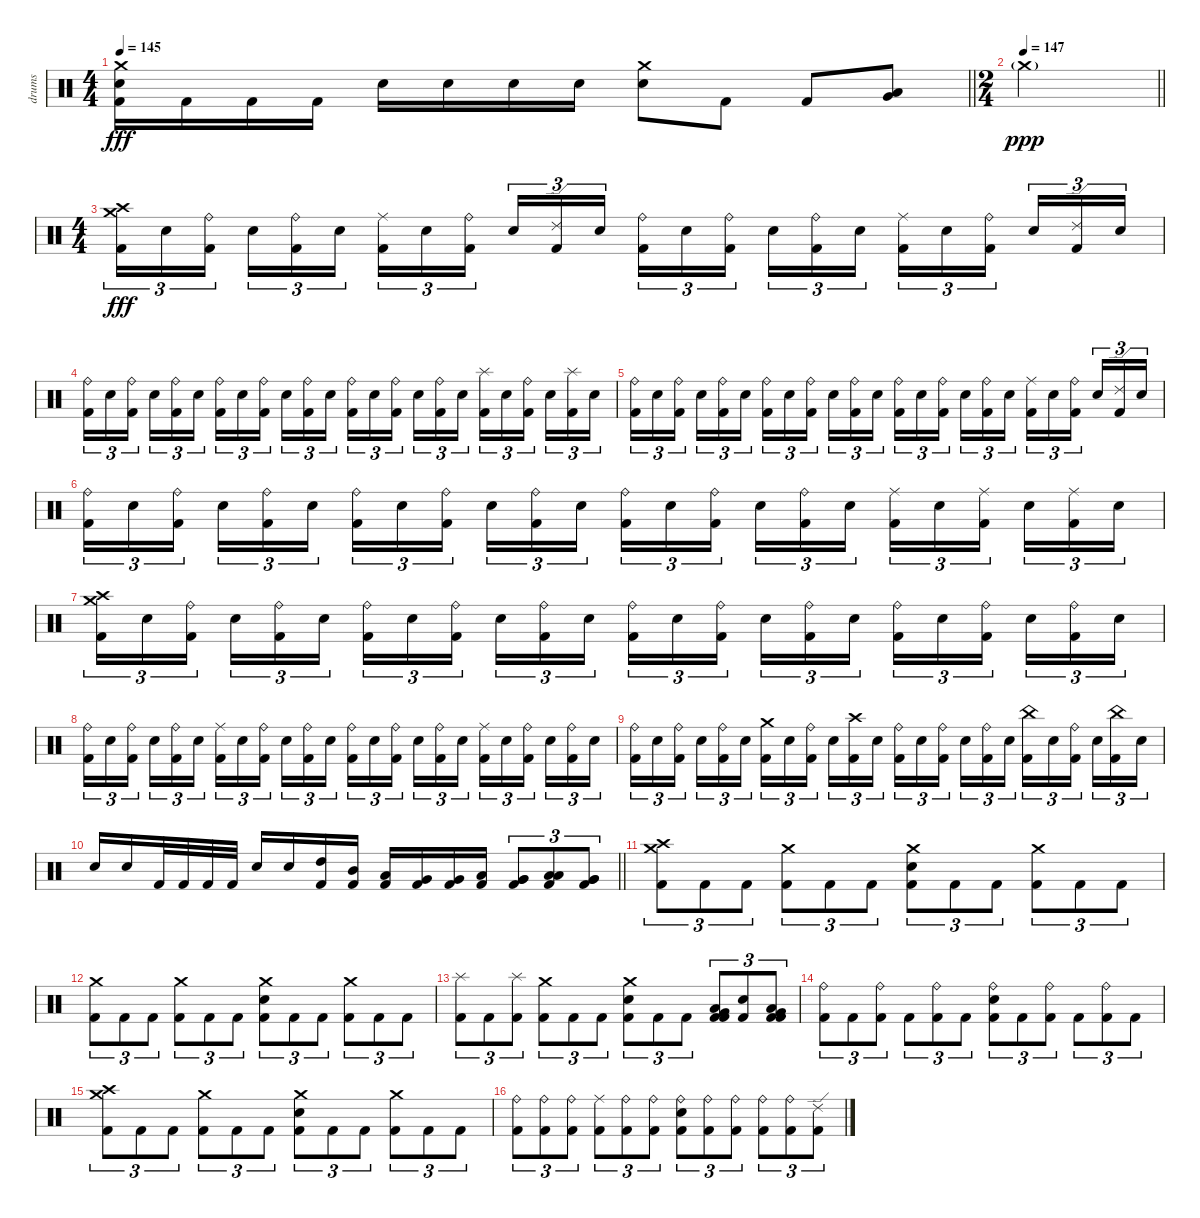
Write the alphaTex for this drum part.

\track ("drums" "drums") {instrument percussion}
\staff {score}
\articulation defaults
\ts (4 4)
\tempo 145
\clef neutral
\barLineRight lightlight
\ks c
("Crash medium (hit)" "Electric Snare (hit)" "Kick (hit) 2").16{dy fff} "Kick (hit) 2".16 "Kick (hit) 2".16 "Kick (hit) 2".16 "Electric Snare (hit)".16 "Electric Snare (hit)".16 "Electric Snare (hit)".16 "Electric Snare (hit)".16 ("Crash medium (hit)" "Electric Snare (hit)").8 "Kick (hit) 2".8 "Kick (hit) 2".8 ("Very Low Tom (hit)" "Low Floor Tom (hit)").8 |
\ts (2 4)
\tempo 147
\barLineRight lightlight "Crash medium (hit)"{g}.2{dy ppp}
|
\ts (4 4)
\section ("" "")
("Crash high (hit)" "Crash medium (hit)" "Kick (hit) 2").16{tu (3 2) dy fff} "Electric Snare (hit)".16{tu (3 2)} ("Ride (bell)" "Kick (hit) 2").16{tu (3 2) beam splitsecondary} "Electric Snare (hit)".16{tu (3 2)} ("Ride (bell)" "Kick (hit) 2").16{tu (3 2)} "Electric Snare (hit)".16{tu (3 2)} ("Ride (middle)" "Kick (hit) 2").16{tu (3 2)} "Electric Snare (hit)".16{tu (3 2)} ("Ride (bell)" "Kick (hit) 2").16{tu (3 2) beam splitsecondary} "Electric Snare (hit)".16{tu (3 2)} ("Ride (edge) 2" "Kick (hit) 2").16{tu (3 2)} "Electric Snare (hit)".16{tu (3 2)} ("Ride (bell)" "Kick (hit) 2").16{tu (3 2)} "Electric Snare (hit)".16{tu (3 2)} ("Ride (bell)" "Kick (hit) 2").16{tu (3 2) beam splitsecondary} "Electric Snare (hit)".16{tu (3 2)} ("Ride (bell)" "Kick (hit) 2").16{tu (3 2)} "Electric Snare (hit)".16{tu (3 2)} ("Ride (middle)" "Kick (hit) 2").16{tu (3 2)} "Electric Snare (hit)".16{tu (3 2)} ("Ride (bell)" "Kick (hit) 2").16{tu (3 2) beam splitsecondary} "Electric Snare (hit)".16{tu (3 2)} ("Ride (edge) 2" "Kick (hit) 2").16{tu (3 2)} "Electric Snare (hit)".16{tu (3 2)} |
("Ride (bell)" "Kick (hit) 2").16{tu (3 2)} "Electric Snare (hit)".16{tu (3 2)} ("Ride (bell)" "Kick (hit) 2").16{tu (3 2) beam splitsecondary} "Electric Snare (hit)".16{tu (3 2)} ("Ride (bell)" "Kick (hit) 2").16{tu (3 2)} "Electric Snare (hit)".16{tu (3 2)} ("Ride (bell)" "Kick (hit) 2").16{tu (3 2)} "Electric Snare (hit)".16{tu (3 2)} ("Ride (bell)" "Kick (hit) 2").16{tu (3 2) beam splitsecondary} "Electric Snare (hit)".16{tu (3 2)} ("Ride (bell)" "Kick (hit) 2").16{tu (3 2)} "Electric Snare (hit)".16{tu (3 2)} ("Ride (bell)" "Kick (hit) 2").16{tu (3 2)} "Electric Snare (hit)".16{tu (3 2)} ("Ride (bell)" "Kick (hit) 2").16{tu (3 2) beam splitsecondary} "Electric Snare (hit)".16{tu (3 2)} ("Ride (bell)" "Kick (hit) 2").16{tu (3 2)} "Electric Snare (hit)".16{tu (3 2)} ("Splash (hit)" "Kick (hit) 2").16{tu (3 2)} "Electric Snare (hit)".16{tu (3 2)} ("Ride (bell)" "Kick (hit) 2").16{tu (3 2) beam splitsecondary} "Electric Snare (hit)".16{tu (3 2)} ("Splash (hit)" "Kick (hit) 2").16{tu (3 2)} "Electric Snare (hit)".16{tu (3 2)} |
("Ride (bell)" "Kick (hit) 2").16{tu (3 2)} "Electric Snare (hit)".16{tu (3 2)} ("Ride (bell)" "Kick (hit) 2").16{tu (3 2) beam splitsecondary} "Electric Snare (hit)".16{tu (3 2)} ("Ride (bell)" "Kick (hit) 2").16{tu (3 2)} "Electric Snare (hit)".16{tu (3 2)} ("Ride (bell)" "Kick (hit) 2").16{tu (3 2)} "Electric Snare (hit)".16{tu (3 2)} ("Ride (bell)" "Kick (hit) 2").16{tu (3 2) beam splitsecondary} "Electric Snare (hit)".16{tu (3 2)} ("Ride (bell)" "Kick (hit) 2").16{tu (3 2)} "Electric Snare (hit)".16{tu (3 2)} ("Ride (bell)" "Kick (hit) 2").16{tu (3 2)} "Electric Snare (hit)".16{tu (3 2)} ("Ride (bell)" "Kick (hit) 2").16{tu (3 2) beam splitsecondary} "Electric Snare (hit)".16{tu (3 2)} ("Ride (bell)" "Kick (hit) 2").16{tu (3 2)} "Electric Snare (hit)".16{tu (3 2)} ("Ride (middle)" "Kick (hit) 2").16{tu (3 2)} "Electric Snare (hit)".16{tu (3 2)} ("Ride (bell)" "Kick (hit) 2").16{tu (3 2) beam splitsecondary} "Electric Snare (hit)".16{tu (3 2)} ("Ride (edge) 2" "Kick (hit) 2").16{tu (3 2)} "Electric Snare (hit)".16{tu (3 2)} |
("Ride (bell)" "Kick (hit) 2").16{tu (3 2)} "Electric Snare (hit)".16{tu (3 2)} ("Ride (bell)" "Kick (hit) 2").16{tu (3 2) beam splitsecondary} "Electric Snare (hit)".16{tu (3 2)} ("Ride (bell)" "Kick (hit) 2").16{tu (3 2)} "Electric Snare (hit)".16{tu (3 2)} ("Ride (bell)" "Kick (hit) 2").16{tu (3 2)} "Electric Snare (hit)".16{tu (3 2)} ("Ride (bell)" "Kick (hit) 2").16{tu (3 2) beam splitsecondary} "Electric Snare (hit)".16{tu (3 2)} ("Ride (bell)" "Kick (hit) 2").16{tu (3 2)} "Electric Snare (hit)".16{tu (3 2)} ("Ride (bell)" "Kick (hit) 2").16{tu (3 2)} "Electric Snare (hit)".16{tu (3 2)} ("Ride (bell)" "Kick (hit) 2").16{tu (3 2) beam splitsecondary} "Electric Snare (hit)".16{tu (3 2)} ("Ride (bell)" "Kick (hit) 2").16{tu (3 2)} "Electric Snare (hit)".16{tu (3 2)} ("Ride (middle)" "Kick (hit) 2").16{tu (3 2)} "Electric Snare (hit)".16{tu (3 2)} ("Ride (middle)" "Kick (hit) 2").16{tu (3 2) beam splitsecondary} "Electric Snare (hit)".16{tu (3 2)} ("Ride (middle)" "Kick (hit) 2").16{tu (3 2)} "Electric Snare (hit)".16{tu (3 2)} |
("Crash high (hit)" "Crash medium (hit)" "Kick (hit) 2").16{tu (3 2)} "Electric Snare (hit)".16{tu (3 2)} ("Ride (bell)" "Kick (hit) 2").16{tu (3 2) beam splitsecondary} "Electric Snare (hit)".16{tu (3 2)} ("Ride (bell)" "Kick (hit) 2").16{tu (3 2)} "Electric Snare (hit)".16{tu (3 2)} ("Ride (bell)" "Kick (hit) 2").16{tu (3 2)} "Electric Snare (hit)".16{tu (3 2)} ("Ride (bell)" "Kick (hit) 2").16{tu (3 2) beam splitsecondary} "Electric Snare (hit)".16{tu (3 2)} ("Ride (bell)" "Kick (hit) 2").16{tu (3 2)} "Electric Snare (hit)".16{tu (3 2)} ("Ride (bell)" "Kick (hit) 2").16{tu (3 2)} "Electric Snare (hit)".16{tu (3 2)} ("Ride (bell)" "Kick (hit) 2").16{tu (3 2) beam splitsecondary} "Electric Snare (hit)".16{tu (3 2)} ("Ride (bell)" "Kick (hit) 2").16{tu (3 2)} "Electric Snare (hit)".16{tu (3 2)} ("Ride (bell)" "Kick (hit) 2").16{tu (3 2)} "Electric Snare (hit)".16{tu (3 2)} ("Ride (bell)" "Kick (hit) 2").16{tu (3 2) beam splitsecondary} "Electric Snare (hit)".16{tu (3 2)} ("Ride (bell)" "Kick (hit) 2").16{tu (3 2)} "Electric Snare (hit)".16{tu (3 2)} |
("Ride (bell)" "Kick (hit) 2").16{tu (3 2)} "Electric Snare (hit)".16{tu (3 2)} ("Ride (bell)" "Kick (hit) 2").16{tu (3 2) beam splitsecondary} "Electric Snare (hit)".16{tu (3 2)} ("Ride (bell)" "Kick (hit) 2").16{tu (3 2)} "Electric Snare (hit)".16{tu (3 2)} ("Ride (middle)" "Kick (hit) 2").16{tu (3 2)} "Electric Snare (hit)".16{tu (3 2)} ("Ride (bell)" "Kick (hit) 2").16{tu (3 2) beam splitsecondary} "Electric Snare (hit)".16{tu (3 2)} ("Ride (bell)" "Kick (hit) 2").16{tu (3 2)} "Electric Snare (hit)".16{tu (3 2)} ("Ride (bell)" "Kick (hit) 2").16{tu (3 2)} "Electric Snare (hit)".16{tu (3 2)} ("Ride (bell)" "Kick (hit) 2").16{tu (3 2) beam splitsecondary} "Electric Snare (hit)".16{tu (3 2)} ("Ride (bell)" "Kick (hit) 2").16{tu (3 2)} "Electric Snare (hit)".16{tu (3 2)} ("Ride (middle)" "Kick (hit) 2").16{tu (3 2)} "Electric Snare (hit)".16{tu (3 2)} ("Ride (bell)" "Kick (hit) 2").16{tu (3 2) beam splitsecondary} "Electric Snare (hit)".16{tu (3 2)} ("Ride (bell)" "Kick (hit) 2").16{tu (3 2)} "Electric Snare (hit)".16{tu (3 2)} |
("Ride (bell)" "Kick (hit) 2").16{tu (3 2)} "Electric Snare (hit)".16{tu (3 2)} ("Ride (bell)" "Kick (hit) 2").16{tu (3 2) beam splitsecondary} "Electric Snare (hit)".16{tu (3 2)} ("Ride (bell)" "Kick (hit) 2").16{tu (3 2)} "Electric Snare (hit)".16{tu (3 2)} ("Crash medium (hit)" "Kick (hit) 2").16{tu (3 2)} "Electric Snare (hit)".16{tu (3 2)} ("Ride (bell)" "Kick (hit) 2").16{tu (3 2) beam splitsecondary} "Electric Snare (hit)".16{tu (3 2)} ("Crash high (hit)" "Kick (hit) 2").16{tu (3 2)} "Electric Snare (hit)".16{tu (3 2)} ("Ride (bell)" "Kick (hit) 2").16{tu (3 2)} "Electric Snare (hit)".16{tu (3 2)} ("Ride (bell)" "Kick (hit) 2").16{tu (3 2) beam splitsecondary} "Electric Snare (hit)".16{tu (3 2)} ("Ride (bell)" "Kick (hit) 2").16{tu (3 2)} "Electric Snare (hit)".16{tu (3 2)} ("China (hit)" "Kick (hit) 2").16{tu (3 2)} "Electric Snare (hit)".16{tu (3 2)} ("Ride (bell)" "Kick (hit) 2").16{tu (3 2) beam splitsecondary} "Electric Snare (hit)".16{tu (3 2)} ("China (hit)" "Kick (hit) 2").16{tu (3 2)} "Electric Snare (hit)".16{tu (3 2)} |
\barLineRight lightlight "Electric Snare (hit)".16 "Electric Snare (hit)".16 "Kick (hit) 2".32 "Kick (hit) 2".32 "Kick (hit) 2".32 "Kick (hit) 2".32 "Electric Snare (hit)".16 "Electric Snare (hit)".16
("High Tom (hit)" "Kick (hit) 2").16 ("Mid Tom (hit)" "Kick (hit) 2").16 ("Low Tom (hit)" "Kick (hit) 2").16 ("Very Low Tom (hit)" "Kick (hit) 2").16 ("Very Low Tom (hit)" "Kick (hit) 2").16 ("Low Floor Tom (hit)" "Kick (hit) 2").16 ("Very Low Tom (hit)" "Very Low Tom (hit)" "Kick (hit) 2").8{tu (3 2)} ("Low Floor Tom (hit)" "Low Floor Tom (hit)" "Kick (hit) 2").8{tu (3 2)} ("Very Low Tom (hit)" "Very Low Tom (hit)" "Kick (hit) 2").8{tu (3 2)} |
\section ("" "")
("Crash high (hit)" "Crash medium (hit)" "Kick (hit) 2").8{tu (3 2)} "Kick (hit) 2".8{tu (3 2)} "Kick (hit) 2".8{tu (3 2)} ("Crash medium (hit)" "Kick (hit) 2").8{tu (3 2)} "Kick (hit) 2".8{tu (3 2)} "Kick (hit) 2".8{tu (3 2)} ("Crash medium (hit)" "Electric Snare (hit)" "Kick (hit) 2").8{tu (3 2)} "Kick (hit) 2".8{tu (3 2)} "Kick (hit) 2".8{tu (3 2)} ("Crash medium (hit)" "Kick (hit) 2").8{tu (3 2)} "Kick (hit) 2".8{tu (3 2)} "Kick (hit) 2".8{tu (3 2)} |
("Crash medium (hit)" "Kick (hit) 2").8{tu (3 2)} "Kick (hit) 2".8{tu (3 2)} "Kick (hit) 2".8{tu (3 2)} ("Crash medium (hit)" "Kick (hit) 2").8{tu (3 2)} "Kick (hit) 2".8{tu (3 2)} "Kick (hit) 2".8{tu (3 2)} ("Crash medium (hit)" "Electric Snare (hit)" "Kick (hit) 2").8{tu (3 2)} "Kick (hit) 2".8{tu (3 2)} "Kick (hit) 2".8{tu (3 2)} ("Crash medium (hit)" "Kick (hit) 2").8{tu (3 2)} "Kick (hit) 2".8{tu (3 2)} "Kick (hit) 2".8{tu (3 2)} |
("Splash (hit)" "Kick (hit) 2").8{tu (3 2)} "Kick (hit) 2".8{tu (3 2)} ("Splash (hit)" "Kick (hit) 2").8{tu (3 2)} ("Crash medium (hit)" "Kick (hit) 2").8{tu (3 2)} "Kick (hit) 2".8{tu (3 2)} "Kick (hit) 2".8{tu (3 2)} ("Crash medium (hit)" "Electric Snare (hit)" "Kick (hit) 2").8{tu (3 2)} "Kick (hit) 2".8{tu (3 2)} "Kick (hit) 2".8{tu (3 2)} ("Very Low Tom (hit)" "Low Floor Tom (hit)" "Kick (hit) 2" "Kick (hit) 2").8{tu (3 2)} ("Electric Snare (hit)" "Kick (hit) 2").8{tu (3 2)} ("Very Low Tom (hit)" "Low Floor Tom (hit)" "Kick (hit) 2" "Kick (hit) 2").8{tu (3 2)} |
("Ride (bell)" "Kick (hit) 2").8{tu (3 2)} "Kick (hit) 2".8{tu (3 2)} ("Ride (bell)" "Kick (hit) 2").8{tu (3 2)} "Kick (hit) 2".8{tu (3 2)} ("Ride (bell)" "Kick (hit) 2").8{tu (3 2)} "Kick (hit) 2".8{tu (3 2)} ("Ride (bell)" "Electric Snare (hit)" "Kick (hit) 2").8{tu (3 2)} "Kick (hit) 2".8{tu (3 2)} ("Ride (bell)" "Kick (hit) 2").8{tu (3 2)} "Kick (hit) 2".8{tu (3 2)} ("Ride (bell)" "Kick (hit) 2").8{tu (3 2)} "Kick (hit) 2".8{tu (3 2)} |
("Crash high (hit)" "Crash medium (hit)" "Kick (hit) 2").8{tu (3 2)} "Kick (hit) 2".8{tu (3 2)} "Kick (hit) 2".8{tu (3 2)} ("Crash medium (hit)" "Kick (hit) 2").8{tu (3 2)} "Kick (hit) 2".8{tu (3 2)} "Kick (hit) 2".8{tu (3 2)} ("Crash medium (hit)" "Electric Snare (hit)" "Kick (hit) 2").8{tu (3 2)} "Kick (hit) 2".8{tu (3 2)} "Kick (hit) 2".8{tu (3 2)} ("Crash medium (hit)" "Kick (hit) 2").8{tu (3 2)} "Kick (hit) 2".8{tu (3 2)} "Kick (hit) 2".8{tu (3 2)} |
("Ride (bell)" "Kick (hit) 2").8{tu (3 2)} ("Ride (bell)" "Kick (hit) 2").8{tu (3 2)} ("Ride (bell)" "Kick (hit) 2").8{tu (3 2)} ("Ride (middle)" "Kick (hit) 2").8{tu (3 2)} ("Ride (bell)" "Kick (hit) 2").8{tu (3 2)} ("Ride (bell)" "Kick (hit) 2").8{tu (3 2)} ("Ride (bell)" "Electric Snare (hit)" "Kick (hit) 2").8{tu (3 2)} ("Ride (bell)" "Kick (hit) 2").8{tu (3 2)} ("Ride (bell)" "Kick (hit) 2").8{tu (3 2)} ("Ride (bell)" "Kick (hit) 2").8{tu (3 2)} ("Ride (bell)" "Kick (hit) 2").8{tu (3 2)} ("Ride (edge) 2" "Kick (hit) 2").8{tu (3 2)}
